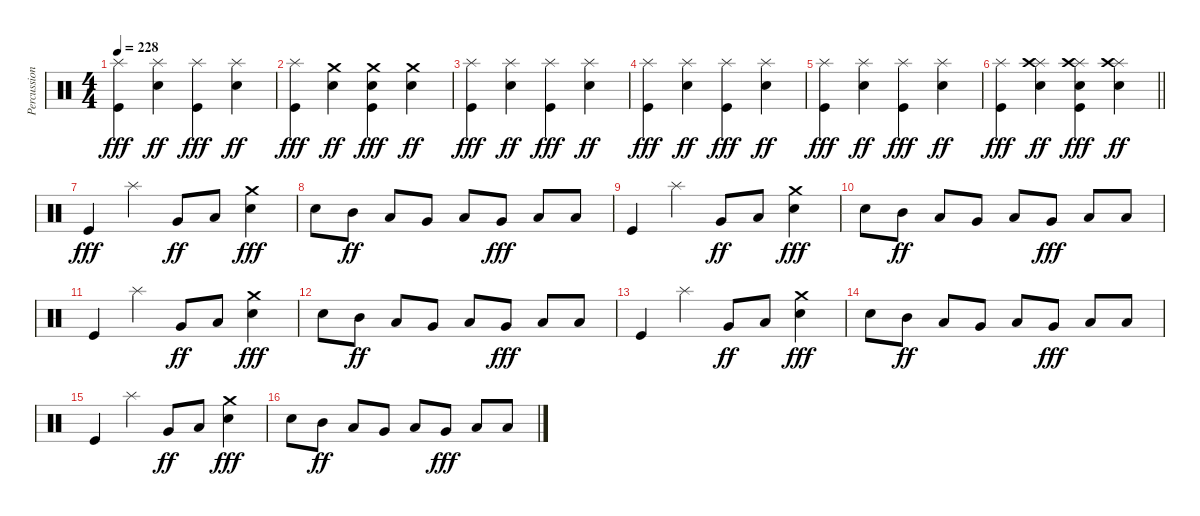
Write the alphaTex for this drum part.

\track ("Percussion" "Percussion") {instrument percussion}
\staff {score}
\articulation defaults
\ts (4 4)
\tempo 228
\clef neutral
\ks c
("Splash (hit)" "Kick (hit)").4{dy fff} ("Splash (hit)" "Electric Snare (hit)").4{dy ff} ("Splash (hit)" "Kick (hit)").4{dy fff} ("Splash (hit)" "Electric Snare (hit)").4{dy ff} |
("Splash (hit)" "Kick (hit)").4{dy fff} ("Crash medium (hit)" "Electric Snare (hit)").4{dy ff} ("Crash medium (hit)" "Electric Snare (hit)" "Kick (hit)").4{dy fff} ("Crash medium (hit)" "Electric Snare (hit)").4{dy ff} |
("Splash (hit)" "Kick (hit)").4{dy fff} ("Splash (hit)" "Electric Snare (hit)").4{dy ff} ("Splash (hit)" "Kick (hit)").4{dy fff} ("Splash (hit)" "Electric Snare (hit)").4{dy ff} |
("Splash (hit)" "Kick (hit)").4{dy fff} ("Splash (hit)" "Electric Snare (hit)").4{dy ff} ("Splash (hit)" "Kick (hit)").4{dy fff} ("Splash (hit)" "Electric Snare (hit)").4{dy ff} |
("Splash (hit)" "Kick (hit)").4{dy fff} ("Splash (hit)" "Electric Snare (hit)").4{dy ff} ("Splash (hit)" "Kick (hit)").4{dy fff} ("Splash (hit)" "Electric Snare (hit)").4{dy ff} |
\barLineRight lightlight
("Splash (hit)" "Kick (hit)").4{dy fff} ("Splash (hit)" "Crash high (hit)" "Electric Snare (hit)").4{dy ff} ("Splash (hit)" "Crash high (hit)" "Electric Snare (hit)" "Kick (hit)").4{dy fff} ("Splash (hit)" "Crash high (hit)" "Electric Snare (hit)").4{dy ff} |
"Kick (hit)".4{dy fff} "Splash (hit)".4 "Very Low Tom (hit)".8{dy ff} "Low Floor Tom (hit)".8 ("Crash medium (hit)" "Electric Snare (hit)").4{dy fff} |
"Snare (hit) 2".8 "Mid Tom (hit)".8{dy ff} "Low Tom (hit)".8 "Very Low Tom (hit)".8 "Low Tom (hit)".8 "Very Low Tom (hit)".8{dy fff} "Low Floor Tom (hit)".8 "Low Floor Tom (hit)".8 |
"Kick (hit)".4 "Splash (hit)".4 "Very Low Tom (hit)".8{dy ff} "Low Floor Tom (hit)".8 ("Crash medium (hit)" "Electric Snare (hit)").4{dy fff} |
"Snare (hit) 2".8 "Mid Tom (hit)".8{dy ff} "Low Tom (hit)".8 "Very Low Tom (hit)".8 "Low Tom (hit)".8 "Very Low Tom (hit)".8{dy fff} "Low Floor Tom (hit)".8 "Low Floor Tom (hit)".8 |
"Kick (hit)".4 "Splash (hit)".4 "Very Low Tom (hit)".8{dy ff} "Low Floor Tom (hit)".8 ("Crash medium (hit)" "Electric Snare (hit)").4{dy fff} |
"Snare (hit) 2".8 "Mid Tom (hit)".8{dy ff} "Low Tom (hit)".8 "Very Low Tom (hit)".8 "Low Tom (hit)".8 "Very Low Tom (hit)".8{dy fff} "Low Floor Tom (hit)".8 "Low Floor Tom (hit)".8 |
"Kick (hit)".4 "Splash (hit)".4 "Very Low Tom (hit)".8{dy ff} "Low Floor Tom (hit)".8 ("Crash medium (hit)" "Electric Snare (hit)").4{dy fff} |
"Snare (hit) 2".8 "Mid Tom (hit)".8{dy ff} "Low Tom (hit)".8 "Very Low Tom (hit)".8 "Low Tom (hit)".8 "Very Low Tom (hit)".8{dy fff} "Low Floor Tom (hit)".8 "Low Floor Tom (hit)".8 |
"Kick (hit)".4 "Splash (hit)".4 "Very Low Tom (hit)".8{dy ff} "Low Floor Tom (hit)".8 ("Crash medium (hit)" "Electric Snare (hit)").4{dy fff} |
"Snare (hit) 2".8 "Mid Tom (hit)".8{dy ff} "Low Tom (hit)".8 "Very Low Tom (hit)".8 "Low Tom (hit)".8 "Very Low Tom (hit)".8{dy fff} "Low Floor Tom (hit)".8 "Low Floor Tom (hit)".8
